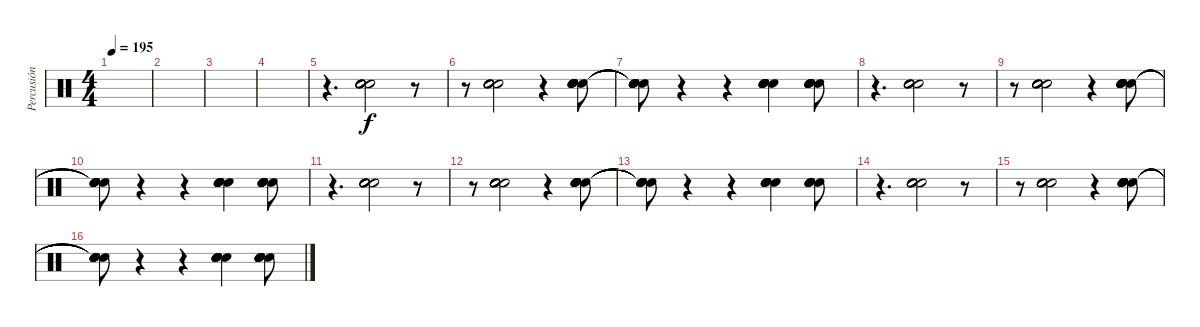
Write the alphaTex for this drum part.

\track ("Percusión" "Percusión") {instrument percussion}
\staff {score}
\articulation defaults
\ts (4 4)
\tempo 195
\clef neutral
\ks c
|
|
|
|
r.4{d} ("Hand Clap (hit)" "Hand Clap (hit)" "Hand Clap (hit)" "Hand Clap (hit)" "Hand Clap (hit)" "Hand Clap (hit)").2{bd 120} r.8 |
r.8 ("Hand Clap (hit)" "Hand Clap (hit)" "Hand Clap (hit)" "Hand Clap (hit)" "Hand Clap (hit)" "Hand Clap (hit)").2{bd 120} r.4 ("Hand Clap (hit)" "Hand Clap (hit)" "Hand Clap (hit)" "Hand Clap (hit)" "Hand Clap (hit)" "Hand Clap (hit)").8{bd 120} |
("Snare (hit)"{t} "Snare (hit)"{t} "Snare (hit)"{t} "Snare (hit)"{t} "Snare (hit)"{t} "Snare (hit)"{t}).8 r.4 r.4 ("Hand Clap (hit)" "Hand Clap (hit)" "Hand Clap (hit)" "Hand Clap (hit)" "Hand Clap (hit)" "Hand Clap (hit)").4{bd 120} ("Hand Clap (hit)" "Hand Clap (hit)" "Hand Clap (hit)" "Hand Clap (hit)" "Hand Clap (hit)" "Hand Clap (hit)").8{bd 120} |
r.4{d} ("Hand Clap (hit)" "Hand Clap (hit)" "Hand Clap (hit)" "Hand Clap (hit)" "Hand Clap (hit)" "Hand Clap (hit)").2{bd 120} r.8 |
r.8 ("Hand Clap (hit)" "Hand Clap (hit)" "Hand Clap (hit)" "Hand Clap (hit)" "Hand Clap (hit)" "Hand Clap (hit)").2{bd 120} r.4 ("Hand Clap (hit)" "Hand Clap (hit)" "Hand Clap (hit)" "Hand Clap (hit)" "Hand Clap (hit)" "Hand Clap (hit)").8{bd 120} |
("Snare (hit)"{t} "Snare (hit)"{t} "Snare (hit)"{t} "Snare (hit)"{t} "Snare (hit)"{t} "Snare (hit)"{t}).8 r.4 r.4 ("Hand Clap (hit)" "Hand Clap (hit)" "Hand Clap (hit)" "Hand Clap (hit)" "Hand Clap (hit)" "Hand Clap (hit)").4{bd 120} ("Hand Clap (hit)" "Hand Clap (hit)" "Hand Clap (hit)" "Hand Clap (hit)" "Hand Clap (hit)" "Hand Clap (hit)").8{bd 120} |
r.4{d} ("Hand Clap (hit)" "Hand Clap (hit)" "Hand Clap (hit)" "Hand Clap (hit)" "Hand Clap (hit)" "Hand Clap (hit)").2{bd 120} r.8 |
r.8 ("Hand Clap (hit)" "Hand Clap (hit)" "Hand Clap (hit)" "Hand Clap (hit)" "Hand Clap (hit)" "Hand Clap (hit)").2{bd 120} r.4 ("Hand Clap (hit)" "Hand Clap (hit)" "Hand Clap (hit)" "Hand Clap (hit)" "Hand Clap (hit)" "Hand Clap (hit)").8{bd 120} |
("Snare (hit)"{t} "Snare (hit)"{t} "Snare (hit)"{t} "Snare (hit)"{t} "Snare (hit)"{t} "Snare (hit)"{t}).8 r.4 r.4 ("Hand Clap (hit)" "Hand Clap (hit)" "Hand Clap (hit)" "Hand Clap (hit)" "Hand Clap (hit)" "Hand Clap (hit)").4{bd 120} ("Hand Clap (hit)" "Hand Clap (hit)" "Hand Clap (hit)" "Hand Clap (hit)" "Hand Clap (hit)" "Hand Clap (hit)").8{bd 120} |
r.4{d} ("Hand Clap (hit)" "Hand Clap (hit)" "Hand Clap (hit)" "Hand Clap (hit)" "Hand Clap (hit)" "Hand Clap (hit)").2{bd 120} r.8 |
r.8 ("Hand Clap (hit)" "Hand Clap (hit)" "Hand Clap (hit)" "Hand Clap (hit)" "Hand Clap (hit)" "Hand Clap (hit)").2{bd 120} r.4 ("Hand Clap (hit)" "Hand Clap (hit)" "Hand Clap (hit)" "Hand Clap (hit)" "Hand Clap (hit)" "Hand Clap (hit)").8{bd 120} |
("Snare (hit)"{t} "Snare (hit)"{t} "Snare (hit)"{t} "Snare (hit)"{t} "Snare (hit)"{t} "Snare (hit)"{t}).8 r.4 r.4 ("Hand Clap (hit)" "Hand Clap (hit)" "Hand Clap (hit)" "Hand Clap (hit)" "Hand Clap (hit)" "Hand Clap (hit)").4{bd 120} ("Hand Clap (hit)" "Hand Clap (hit)" "Hand Clap (hit)" "Hand Clap (hit)" "Hand Clap (hit)" "Hand Clap (hit)").8{bd 120}
